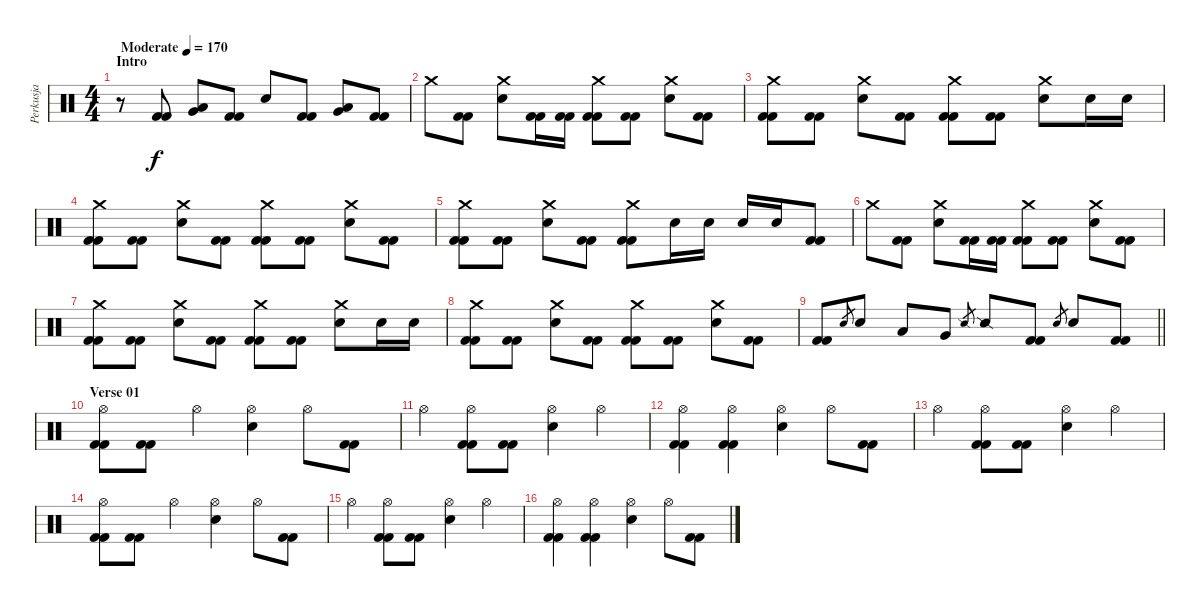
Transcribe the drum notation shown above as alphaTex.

\track ("Perkusja" "Perkusja") {instrument percussion}
\staff {score}
\articulation defaults
\ts (4 4)
\section ("" "Intro")
\tempo (170 "Moderate")
\clef neutral
\ks c
r.8{dy f} ("Kick (hit) 2" "Kick (hit) 2").8 ("Low Tom (hit)" "Very Low Tom (hit)").8 ("Kick (hit) 2" "Kick (hit) 2").8 "Electric Snare (hit)".8 ("Kick (hit) 2" "Kick (hit) 2").8 ("Very Low Tom (hit)" "Low Floor Tom (hit)").8 ("Kick (hit) 2" "Kick (hit) 2").8 |
"Crash medium (hit)".8 ("Kick (hit) 2" "Kick (hit) 2").8 ("Crash medium (hit)" "Electric Snare (hit)").8 ("Kick (hit) 2" "Kick (hit) 2").16 ("Kick (hit) 2" "Kick (hit) 2").16 ("Crash medium (hit)" "Kick (hit) 2" "Kick (hit) 2").8 ("Kick (hit) 2" "Kick (hit) 2").8 ("Crash medium (hit)" "Electric Snare (hit)").8 ("Kick (hit) 2" "Kick (hit) 2").8 |
("Crash medium (hit)" "Kick (hit) 2" "Kick (hit) 2").8 ("Kick (hit) 2" "Kick (hit) 2").8 ("Crash medium (hit)" "Electric Snare (hit)").8 ("Kick (hit) 2" "Kick (hit) 2").8 ("Crash medium (hit)" "Kick (hit) 2" "Kick (hit) 2").8 ("Kick (hit) 2" "Kick (hit) 2").8 ("Crash medium (hit)" "Electric Snare (hit)").8 "Electric Snare (hit)".16 "Electric Snare (hit)".16 |
("Crash medium (hit)" "Kick (hit) 2" "Kick (hit) 2").8 ("Kick (hit) 2" "Kick (hit) 2").8 ("Crash medium (hit)" "Electric Snare (hit)").8 ("Kick (hit) 2" "Kick (hit) 2").8 ("Crash medium (hit)" "Kick (hit) 2" "Kick (hit) 2").8 ("Kick (hit) 2" "Kick (hit) 2").8 ("Crash medium (hit)" "Electric Snare (hit)").8 ("Kick (hit) 2" "Kick (hit) 2").8 |
("Crash medium (hit)" "Kick (hit) 2" "Kick (hit) 2").8 ("Kick (hit) 2" "Kick (hit) 2").8 ("Crash medium (hit)" "Electric Snare (hit)").8 ("Kick (hit) 2" "Kick (hit) 2").8 ("Crash medium (hit)" "Kick (hit) 2" "Kick (hit) 2").8 "Electric Snare (hit)".16 "Electric Snare (hit)".16 "Electric Snare (hit)".16 "Electric Snare (hit)".16 ("Kick (hit) 2" "Kick (hit) 2").8 |
"Crash medium (hit)".8 ("Kick (hit) 2" "Kick (hit) 2").8 ("Crash medium (hit)" "Electric Snare (hit)").8 ("Kick (hit) 2" "Kick (hit) 2").16 ("Kick (hit) 2" "Kick (hit) 2").16 ("Crash medium (hit)" "Kick (hit) 2" "Kick (hit) 2").8 ("Kick (hit) 2" "Kick (hit) 2").8 ("Crash medium (hit)" "Electric Snare (hit)").8 ("Kick (hit) 2" "Kick (hit) 2").8 |
("Crash medium (hit)" "Kick (hit) 2" "Kick (hit) 2").8 ("Kick (hit) 2" "Kick (hit) 2").8 ("Crash medium (hit)" "Electric Snare (hit)").8 ("Kick (hit) 2" "Kick (hit) 2").8 ("Crash medium (hit)" "Kick (hit) 2" "Kick (hit) 2").8 ("Kick (hit) 2" "Kick (hit) 2").8 ("Crash medium (hit)" "Electric Snare (hit)").8 "Electric Snare (hit)".16 "Electric Snare (hit)".16 |
("Crash medium (hit)" "Kick (hit) 2" "Kick (hit) 2").8 ("Kick (hit) 2" "Kick (hit) 2").8 ("Crash medium (hit)" "Electric Snare (hit)").8 ("Kick (hit) 2" "Kick (hit) 2").8 ("Crash medium (hit)" "Kick (hit) 2" "Kick (hit) 2").8 ("Kick (hit) 2" "Kick (hit) 2").8 ("Crash medium (hit)" "Electric Snare (hit)").8 ("Kick (hit) 2" "Kick (hit) 2").8 |
\barLineRight lightlight
("Kick (hit) 2" "Kick (hit) 2").8 "Electric Snare (hit)".8{gr} "Electric Snare (hit)".8 "Low Tom (hit)".8 "Very Low Tom (hit)".8 "Snare (side stick) 2".8{gr} "Snare (side stick) 2".8 ("Kick (hit) 2" "Kick (hit) 2").8 "Snare (hit) 2".8{gr} "Electric Snare (hit)".8 ("Kick (hit) 2" "Kick (hit) 2").8 |
\section ("" "Verse 01")
("Hi-Hat (open)" "Kick (hit) 2" "Kick (hit) 2").8 ("Kick (hit) 2" "Kick (hit) 2").8 "Hi-Hat (open)".4 ("Hi-Hat (open)" "Electric Snare (hit)").4 "Hi-Hat (open)".8 ("Kick (hit) 2" "Kick (hit) 2").8 |
"Hi-Hat (open)".4 ("Hi-Hat (open)" "Kick (hit) 2" "Kick (hit) 2").8 ("Kick (hit) 2" "Kick (hit) 2").8 ("Hi-Hat (open)" "Electric Snare (hit)").4 "Hi-Hat (open)".4 |
("Hi-Hat (open)" "Kick (hit) 2" "Kick (hit) 2").4 ("Hi-Hat (open)" "Kick (hit) 2" "Kick (hit) 2").4 ("Hi-Hat (open)" "Electric Snare (hit)").4 "Hi-Hat (open)".8 ("Kick (hit) 2" "Kick (hit) 2").8 |
"Hi-Hat (open)".4 ("Hi-Hat (open)" "Kick (hit) 2" "Kick (hit) 2").8 ("Kick (hit) 2" "Kick (hit) 2").8 ("Hi-Hat (open)" "Electric Snare (hit)").4 "Hi-Hat (open)".4 |
("Hi-Hat (open)" "Kick (hit) 2" "Kick (hit) 2").8 ("Kick (hit) 2" "Kick (hit) 2").8 "Hi-Hat (open)".4 ("Hi-Hat (open)" "Electric Snare (hit)").4 "Hi-Hat (open)".8 ("Kick (hit) 2" "Kick (hit) 2").8 |
"Hi-Hat (open)".4 ("Hi-Hat (open)" "Kick (hit) 2" "Kick (hit) 2").8 ("Kick (hit) 2" "Kick (hit) 2").8 ("Hi-Hat (open)" "Electric Snare (hit)").4 "Hi-Hat (open)".4 |
("Hi-Hat (open)" "Kick (hit) 2" "Kick (hit) 2").4 ("Hi-Hat (open)" "Kick (hit) 2" "Kick (hit) 2").4 ("Hi-Hat (open)" "Electric Snare (hit)").4 "Hi-Hat (open)".8 ("Kick (hit) 2" "Kick (hit) 2").8
